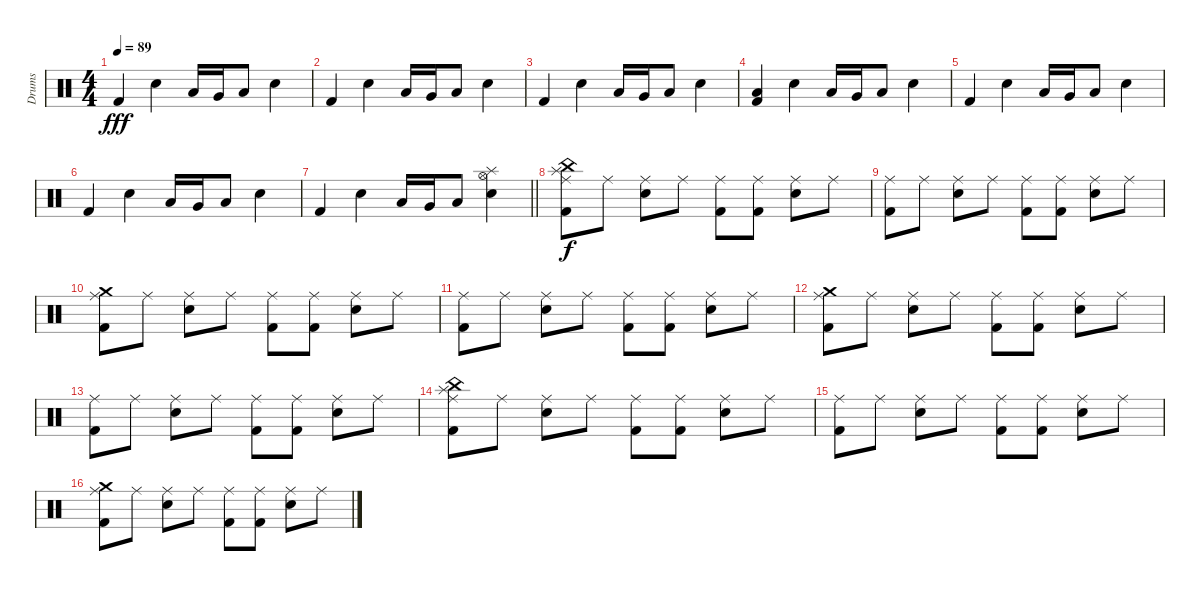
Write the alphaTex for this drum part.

\track ("Drums" "Drums") {instrument percussion}
\staff {score}
\articulation defaults
\ts (4 4)
\tempo 89
\clef neutral
\ks c "Kick (hit) 2".4{dy fff} "Snare (hit) 2".4 "Low Tom (hit)".16 "Very Low Tom (hit)".16 "Low Floor Tom (hit)".8 "Snare (hit) 2".4
|
"Kick (hit) 2".4 "Snare (hit) 2".4 "Low Tom (hit)".16 "Very Low Tom (hit)".16 "Low Floor Tom (hit)".8 "Snare (hit) 2".4 |
"Kick (hit) 2".4 "Snare (hit) 2".4 "Low Tom (hit)".16 "Very Low Tom (hit)".16 "Low Floor Tom (hit)".8 "Snare (hit) 2".4 |
("Low Floor Tom (hit)" "Kick (hit) 2").4 "Snare (hit) 2".4 "Low Tom (hit)".16 "Very Low Tom (hit)".16 "Low Floor Tom (hit)".8 "Snare (hit) 2".4 |
"Kick (hit) 2".4 "Snare (hit) 2".4 "Low Tom (hit)".16 "Very Low Tom (hit)".16 "Low Floor Tom (hit)".8 "Snare (hit) 2".4 |
"Kick (hit) 2".4 "Snare (hit) 2".4 "Low Tom (hit)".16 "Very Low Tom (hit)".16 "Low Floor Tom (hit)".8 "Snare (hit) 2".4 |
\barLineRight lightlight "Kick (hit) 2".4 "Snare (hit) 2".4 "Low Tom (hit)".16 "Very Low Tom (hit)".16 "Low Floor Tom (hit)".8
("Splash (hit)" "Hi-Hat (open)" "Snare (hit) 2").4 |
("Splash (hit)" "China (hit)" "Ride (middle)" "Kick (hit) 2").8{dy f} "Ride (middle)".8 ("Ride (middle)" "Snare (hit) 2").8 "Ride (middle)".8 ("Ride (middle)" "Kick (hit) 2").8 ("Ride (middle)" "Kick (hit) 2").8 ("Ride (middle)" "Snare (hit) 2").8 "Ride (middle)".8 |
("Ride (middle)" "Kick (hit) 2").8 "Ride (middle)".8 ("Ride (middle)" "Snare (hit) 2").8 "Ride (middle)".8 ("Ride (middle)" "Kick (hit) 2").8 ("Ride (middle)" "Kick (hit) 2").8 ("Ride (middle)" "Snare (hit) 2").8 "Ride (middle)".8 |
("Crash medium (hit)" "Ride (middle)" "Kick (hit) 2").8 "Ride (middle)".8 ("Ride (middle)" "Snare (hit) 2").8 "Ride (middle)".8 ("Ride (middle)" "Kick (hit) 2").8 ("Ride (middle)" "Kick (hit) 2").8 ("Ride (middle)" "Snare (hit) 2").8 "Ride (middle)".8 |
("Ride (middle)" "Kick (hit) 2").8 "Ride (middle)".8 ("Ride (middle)" "Snare (hit) 2").8 "Ride (middle)".8 ("Ride (middle)" "Kick (hit) 2").8 ("Ride (middle)" "Kick (hit) 2").8 ("Ride (middle)" "Snare (hit) 2").8 "Ride (middle)".8 |
("Crash medium (hit)" "Ride (middle)" "Kick (hit) 2").8 "Ride (middle)".8 ("Ride (middle)" "Snare (hit) 2").8 "Ride (middle)".8 ("Ride (middle)" "Kick (hit) 2").8 ("Ride (middle)" "Kick (hit) 2").8 ("Ride (middle)" "Snare (hit) 2").8 "Ride (middle)".8 |
("Ride (middle)" "Kick (hit) 2").8 "Ride (middle)".8 ("Ride (middle)" "Snare (hit) 2").8 "Ride (middle)".8 ("Ride (middle)" "Kick (hit) 2").8 ("Ride (middle)" "Kick (hit) 2").8 ("Ride (middle)" "Snare (hit) 2").8 "Ride (middle)".8 |
("Splash (hit)" "China (hit)" "Ride (middle)" "Kick (hit) 2").8 "Ride (middle)".8 ("Ride (middle)" "Snare (hit) 2").8 "Ride (middle)".8 ("Ride (middle)" "Kick (hit) 2").8 ("Ride (middle)" "Kick (hit) 2").8 ("Ride (middle)" "Snare (hit) 2").8 "Ride (middle)".8 |
("Ride (middle)" "Kick (hit) 2").8 "Ride (middle)".8 ("Ride (middle)" "Snare (hit) 2").8 "Ride (middle)".8 ("Ride (middle)" "Kick (hit) 2").8 ("Ride (middle)" "Kick (hit) 2").8 ("Ride (middle)" "Snare (hit) 2").8 "Ride (middle)".8 |
("Crash medium (hit)" "Ride (middle)" "Kick (hit) 2").8 "Ride (middle)".8 ("Ride (middle)" "Snare (hit) 2").8 "Ride (middle)".8 ("Ride (middle)" "Kick (hit) 2").8 ("Ride (middle)" "Kick (hit) 2").8 ("Ride (middle)" "Snare (hit) 2").8 "Ride (middle)".8
